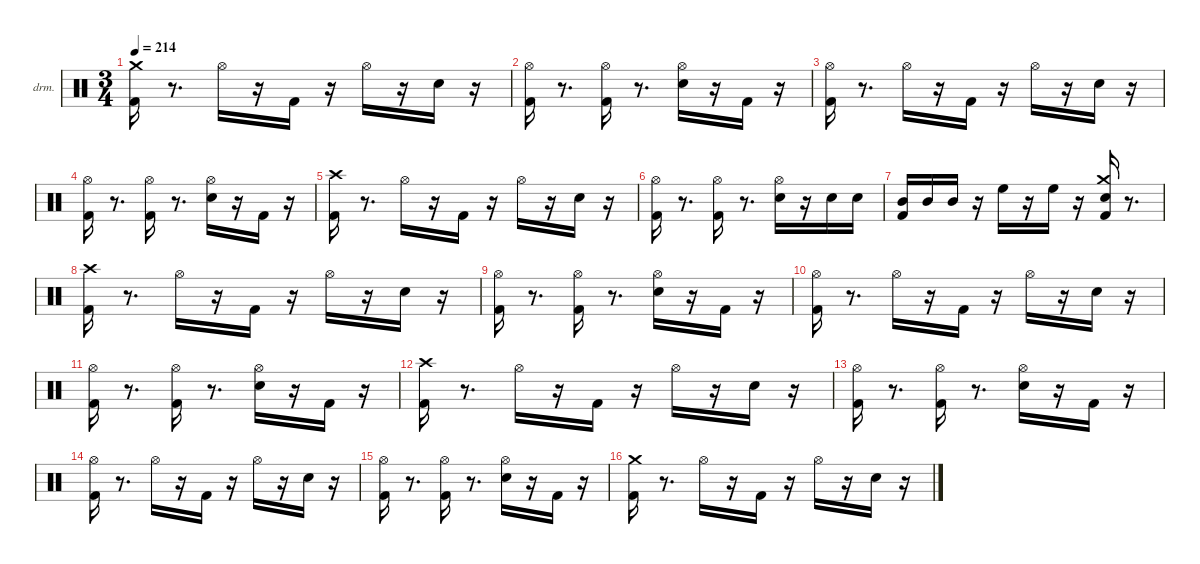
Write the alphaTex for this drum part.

\hideDynamics
\bracketExtendMode nobrackets
\firstSystemTrackNameOrientation horizontal
\track ("EZdrummer 3" "drm.") {instrument percussion}
\staff {score}
\articulation defaults
\ts (3 4)
\tempo 214
\clef neutral
\ks aminor
("Kick (hit) 2" "Crash medium (hit)").16{dy fff} r.8{d} "Hi-Hat (open)"{acc #}.16{dy mf} r.16 "Kick (hit) 2".16{dy ff} r.16 "Hi-Hat (open)"{acc #}.16{dy f} r.16 "Snare (hit) 2".16{dy ff} r.16 |
("Kick (hit) 2" "Hi-Hat (open)"{acc #}).16 r.8{d} ("Kick (hit) 2" "Hi-Hat (open)"{acc #}).16{dy f} r.8{d} ("Snare (hit) 2" "Hi-Hat (open)"{acc #}).16 r.16 "Kick (hit) 2".16{dy mp} r.16 |
("Kick (hit) 2" "Hi-Hat (open)"{acc #}).16{dy fff} r.8{d} "Hi-Hat (open)"{acc #}.16{dy mf} r.16 "Kick (hit) 2".16{dy ff} r.16 "Hi-Hat (open)"{acc #}.16{dy f} r.16 "Snare (hit) 2".16{dy ff} r.16 |
("Kick (hit) 2" "Hi-Hat (open)"{acc #}).16{dy fff} r.8{d} ("Kick (hit) 2" "Hi-Hat (open)"{acc #}).16{dy f} r.8{d} ("Snare (hit) 2" "Hi-Hat (open)"{acc #}).16 r.16 "Kick (hit) 2".16{dy mp} r.16 |
("Kick (hit) 2" "Crash high (hit)"{acc #}).16{dy ff} r.8{d} "Hi-Hat (open)"{acc #}.16{dy f} r.16 "Kick (hit) 2".16{dy ff} r.16 "Hi-Hat (open)"{acc #}.16 r.16 "Snare (hit) 2".16 r.16 |
("Kick (hit) 2" "Hi-Hat (open)"{acc #}).16{dy f} r.8{d} ("Kick (hit) 2" "Hi-Hat (open)"{acc #}).16{dy mf} r.8{d} ("Snare (hit) 2" "Hi-Hat (open)"{acc #}).16{dy fff} r.16 "Snare (hit) 2".16{dy mf} "Snare (hit) 2".16{dy pp} |
("Kick (hit) 2" "Mid Tom (hit)").16{dy ff} "Mid Tom (hit)".16{dy mf} "Mid Tom (hit)".16{dy fff} r.16 "High Floor Tom (hit)".16{dy ff} r.16 "High Floor Tom (hit)".16{dy mf} r.16 ("Kick (hit) 2" "Snare (hit) 2" "Crash medium (hit)").16{dy f} r.8{d} |
("Kick (hit) 2" "Crash high (hit)"{acc #}).16{dy fff} r.8{d} "Hi-Hat (open)"{acc #}.16{dy mf} r.16 "Kick (hit) 2".16{dy ff} r.16 "Hi-Hat (open)"{acc #}.16{dy f} r.16 "Snare (hit) 2".16{dy ff} r.16 |
("Kick (hit) 2" "Hi-Hat (open)"{acc #}).16 r.8{d} ("Kick (hit) 2" "Hi-Hat (open)"{acc #}).16{dy f} r.8{d} ("Snare (hit) 2" "Hi-Hat (open)"{acc #}).16 r.16 "Kick (hit) 2".16{dy mp} r.16 |
("Kick (hit) 2" "Hi-Hat (open)"{acc #}).16{dy fff} r.8{d} "Hi-Hat (open)"{acc #}.16{dy mf} r.16 "Kick (hit) 2".16{dy ff} r.16 "Hi-Hat (open)"{acc #}.16{dy f} r.16 "Snare (hit) 2".16{dy ff} r.16 |
("Kick (hit) 2" "Hi-Hat (open)"{acc #}).16{dy fff} r.8{d} ("Kick (hit) 2" "Hi-Hat (open)"{acc #}).16{dy ff} r.8{d} ("Snare (hit) 2" "Hi-Hat (open)"{acc #}).16{dy f} r.16 "Kick (hit) 2".16{dy mp} r.16 |
("Kick (hit) 2" "Crash high (hit)"{acc #}).16{dy fff} r.8{d} "Hi-Hat (open)"{acc #}.16{dy mf} r.16 "Kick (hit) 2".16{dy ff} r.16 "Hi-Hat (open)"{acc #}.16{dy f} r.16 "Snare (hit) 2".16{dy ff} r.16 |
("Kick (hit) 2" "Hi-Hat (open)"{acc #}).16 r.8{d} ("Kick (hit) 2" "Hi-Hat (open)"{acc #}).16{dy f} r.8{d} ("Snare (hit) 2" "Hi-Hat (open)"{acc #}).16 r.16 "Kick (hit) 2".16{dy mp} r.16 |
("Kick (hit) 2" "Hi-Hat (open)"{acc #}).16{dy fff} r.8{d} "Hi-Hat (open)"{acc #}.16{dy mf} r.16 "Kick (hit) 2".16{dy ff} r.16 "Hi-Hat (open)"{acc #}.16{dy f} r.16 "Snare (hit) 2".16{dy ff} r.16 |
("Kick (hit) 2" "Hi-Hat (open)"{acc #}).16{dy fff} r.8{d} ("Kick (hit) 2" "Hi-Hat (open)"{acc #}).16{dy ff} r.8{d} ("Snare (hit) 2" "Hi-Hat (open)"{acc #}).16{dy f} r.16 "Kick (hit) 2".16{dy mp} r.16 |
("Kick (hit) 2" "Crash medium (hit)").16{dy fff} r.8{d} "Hi-Hat (open)"{acc #}.16{dy mf} r.16 "Kick (hit) 2".16{dy f} r.16 "Hi-Hat (open)"{acc #}.16 r.16 "Snare (hit) 2".16{dy ff} r.16
